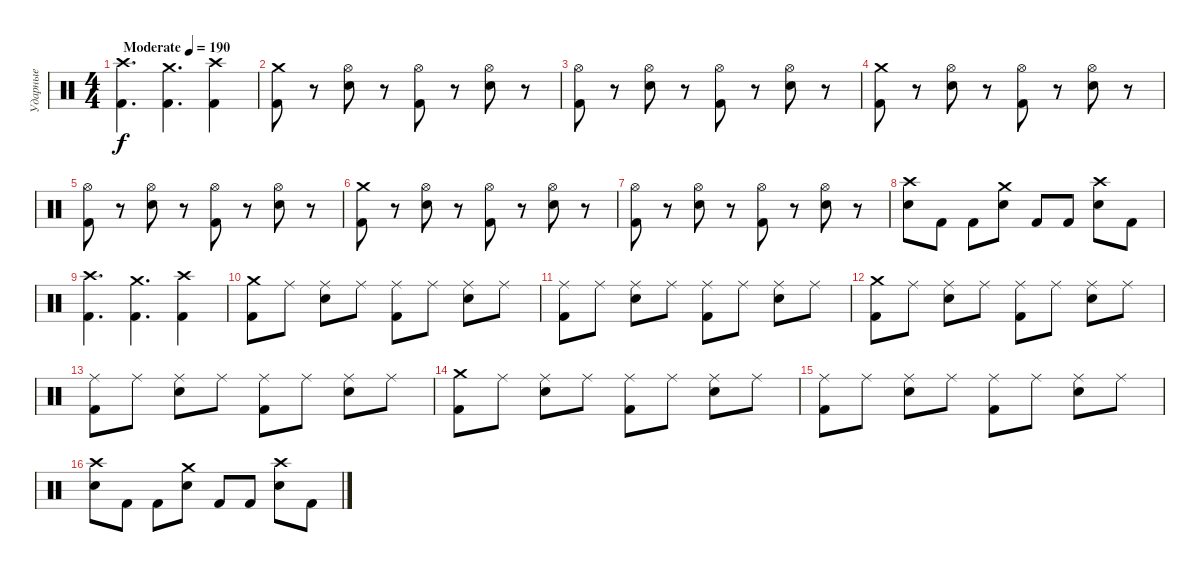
\track ("Ударные" "Ударные") {instrument percussion}
\staff {score}
\articulation defaults
\ts (4 4)
\tempo (190 "Moderate")
\clef neutral
\ks c
("Crash high (hit)" "Kick (hit) 2").4{d dy f} ("Crash medium (hit)" "Kick (hit) 2").4{d} ("Crash high (hit)" "Kick (hit) 2").4 |
("Crash medium (hit)" "Kick (hit) 2").8 r.8 ("Hi-Hat (open)" "Electric Snare (hit)").8 r.8 ("Hi-Hat (open)" "Kick (hit) 2").8 r.8 ("Hi-Hat (open)" "Electric Snare (hit)").8 r.8 |
("Hi-Hat (open)" "Kick (hit) 2").8 r.8 ("Hi-Hat (open)" "Electric Snare (hit)").8 r.8 ("Hi-Hat (open)" "Kick (hit) 2").8 r.8 ("Hi-Hat (open)" "Electric Snare (hit)").8 r.8 |
("Crash medium (hit)" "Kick (hit) 2").8 r.8 ("Hi-Hat (open)" "Electric Snare (hit)").8 r.8 ("Hi-Hat (open)" "Kick (hit) 2").8 r.8 ("Hi-Hat (open)" "Electric Snare (hit)").8 r.8 |
("Hi-Hat (open)" "Kick (hit) 2").8 r.8 ("Hi-Hat (open)" "Electric Snare (hit)").8 r.8 ("Hi-Hat (open)" "Kick (hit) 2").8 r.8 ("Hi-Hat (open)" "Electric Snare (hit)").8 r.8 |
("Crash medium (hit)" "Kick (hit) 2").8 r.8 ("Hi-Hat (open)" "Electric Snare (hit)").8 r.8 ("Hi-Hat (open)" "Kick (hit) 2").8 r.8 ("Hi-Hat (open)" "Electric Snare (hit)").8 r.8 |
("Hi-Hat (open)" "Kick (hit) 2").8 r.8 ("Hi-Hat (open)" "Electric Snare (hit)").8 r.8 ("Hi-Hat (open)" "Kick (hit) 2").8 r.8 ("Hi-Hat (open)" "Electric Snare (hit)").8 r.8 |
("Crash high (hit)" "Electric Snare (hit)").8 "Kick (hit) 2".8 "Kick (hit) 2".8 ("Crash medium (hit)" "Electric Snare (hit)").8 "Kick (hit) 2".8 "Kick (hit) 2".8 ("Crash high (hit)" "Electric Snare (hit)").8 "Kick (hit) 2".8 |
("Crash high (hit)" "Kick (hit) 2").4{d} ("Crash medium (hit)" "Kick (hit) 2").4{d} ("Crash high (hit)" "Kick (hit) 2").4 |
("Crash medium (hit)" "Kick (hit) 2").8 "Ride (middle)".8 ("Ride (middle)" "Electric Snare (hit)").8 "Ride (middle)".8 ("Ride (middle)" "Kick (hit) 2").8 "Ride (middle)".8 ("Ride (middle)" "Electric Snare (hit)").8 "Ride (middle)".8 |
("Ride (middle)" "Kick (hit) 2").8 "Ride (middle)".8 ("Ride (middle)" "Electric Snare (hit)").8 "Ride (middle)".8 ("Ride (middle)" "Kick (hit) 2").8 "Ride (middle)".8 ("Ride (middle)" "Electric Snare (hit)").8 "Ride (middle)".8 |
("Crash medium (hit)" "Kick (hit) 2").8 "Ride (middle)".8 ("Ride (middle)" "Electric Snare (hit)").8 "Ride (middle)".8 ("Ride (middle)" "Kick (hit) 2").8 "Ride (middle)".8 ("Ride (middle)" "Electric Snare (hit)").8 "Ride (middle)".8 |
("Ride (middle)" "Kick (hit) 2").8 "Ride (middle)".8 ("Ride (middle)" "Electric Snare (hit)").8 "Ride (middle)".8 ("Ride (middle)" "Kick (hit) 2").8 "Ride (middle)".8 ("Ride (middle)" "Electric Snare (hit)").8 "Ride (middle)".8 |
("Crash medium (hit)" "Kick (hit) 2").8 "Ride (middle)".8 ("Ride (middle)" "Electric Snare (hit)").8 "Ride (middle)".8 ("Ride (middle)" "Kick (hit) 2").8 "Ride (middle)".8 ("Ride (middle)" "Electric Snare (hit)").8 "Ride (middle)".8 |
("Ride (middle)" "Kick (hit) 2").8 "Ride (middle)".8 ("Ride (middle)" "Electric Snare (hit)").8 "Ride (middle)".8 ("Ride (middle)" "Kick (hit) 2").8 "Ride (middle)".8 ("Ride (middle)" "Electric Snare (hit)").8 "Ride (middle)".8 |
("Crash high (hit)" "Electric Snare (hit)").8 "Kick (hit) 2".8 "Kick (hit) 2".8 ("Crash medium (hit)" "Electric Snare (hit)").8 "Kick (hit) 2".8 "Kick (hit) 2".8 ("Crash high (hit)" "Electric Snare (hit)").8 "Kick (hit) 2".8
